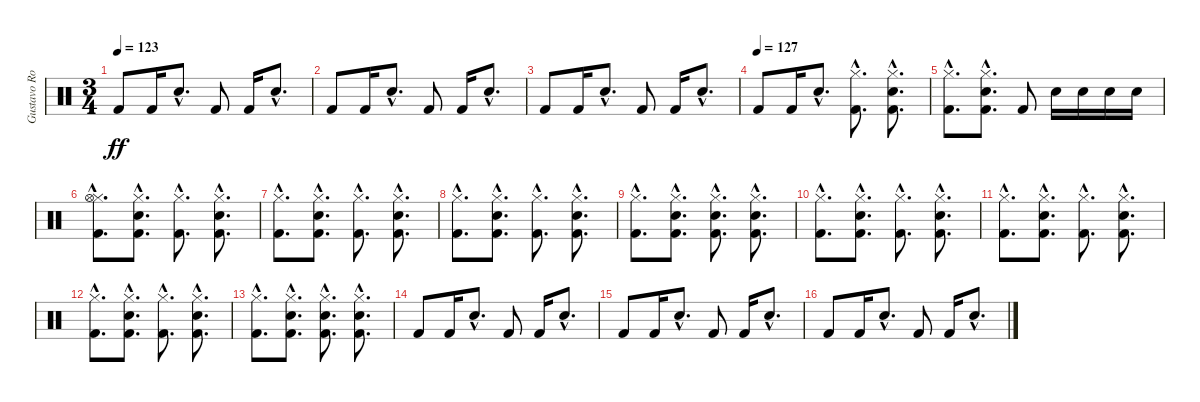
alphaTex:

\track ("Gustavo Rowek 2" "Gustavo Ro") {instrument percussion}
\staff {score}
\articulation defaults
\ts (3 4)
\tempo 123
\clef neutral
\ks c "Kick (hit) 2".8{dy ff} "Kick (hit) 2".16 "Snare (hit) 2"{hac}.8{d} "Kick (hit) 2".8 "Kick (hit) 2".16 "Snare (hit) 2"{hac}.8{d}
|
"Kick (hit) 2".8 "Kick (hit) 2".16 "Snare (hit) 2"{hac}.8{d} "Kick (hit) 2".8 "Kick (hit) 2".16 "Snare (hit) 2"{hac}.8{d} |
"Kick (hit) 2".8 "Kick (hit) 2".16 "Snare (hit) 2"{hac}.8{d} "Kick (hit) 2".8 "Kick (hit) 2".16 "Snare (hit) 2"{hac}.8{d} |
\tempo (127)
"Kick (hit) 2".8 "Kick (hit) 2".16 "Snare (hit) 2"{hac}.8{d} ("Kick (hit) 2"{hac} "Hi-Hat (closed)"{hac}).8{d} ("Kick (hit) 2"{hac} "Snare (hit) 2"{hac} "Hi-Hat (closed)"{hac}).8{d} |
("Kick (hit) 2"{hac} "Hi-Hat (closed)"{hac}).8{d} ("Kick (hit) 2"{hac} "Snare (hit) 2"{hac} "Hi-Hat (closed)"{hac}).8{d} "Kick (hit) 2".8 "Electric Snare (hit)".16 "Electric Snare (hit)".16 "Electric Snare (hit)".16 "Electric Snare (hit)".16 |
("Kick (hit) 2"{hac} "Hi-Hat (closed)"{hac} "Hi-Hat (open)"{hac}).8{d} ("Kick (hit) 2"{hac} "Snare (hit) 2"{hac} "Hi-Hat (closed)"{hac}).8{d} ("Kick (hit) 2"{hac} "Hi-Hat (closed)"{hac}).8{d} ("Kick (hit) 2"{hac} "Snare (hit) 2"{hac} "Hi-Hat (closed)"{hac}).8{d} |
("Kick (hit) 2"{hac} "Hi-Hat (closed)"{hac}).8{d} ("Kick (hit) 2"{hac} "Snare (hit) 2"{hac} "Hi-Hat (closed)"{hac}).8{d} ("Kick (hit) 2"{hac} "Hi-Hat (closed)"{hac}).8{d} ("Kick (hit) 2"{hac} "Snare (hit) 2"{hac} "Hi-Hat (closed)"{hac}).8{d} |
("Kick (hit) 2"{hac} "Hi-Hat (closed)"{hac}).8{d} ("Kick (hit) 2"{hac} "Snare (hit) 2"{hac} "Hi-Hat (closed)"{hac}).8{d} ("Kick (hit) 2"{hac} "Hi-Hat (closed)"{hac}).8{d} ("Kick (hit) 2"{hac} "Snare (hit) 2"{hac} "Hi-Hat (closed)"{hac}).8{d} |
("Kick (hit) 2"{hac} "Hi-Hat (closed)"{hac}).8{d} ("Kick (hit) 2"{hac} "Snare (hit) 2"{hac} "Hi-Hat (closed)"{hac}).8{d} ("Kick (hit) 2"{hac} "Snare (hit) 2"{hac} "Hi-Hat (closed)"{hac}).8{d} ("Kick (hit) 2"{hac} "Snare (hit) 2"{hac} "Hi-Hat (closed)"{hac}).8{d} |
("Kick (hit) 2"{hac} "Hi-Hat (closed)"{hac}).8{d} ("Kick (hit) 2"{hac} "Snare (hit) 2"{hac} "Hi-Hat (closed)"{hac}).8{d} ("Kick (hit) 2"{hac} "Hi-Hat (closed)"{hac}).8{d} ("Kick (hit) 2"{hac} "Snare (hit) 2"{hac} "Hi-Hat (closed)"{hac}).8{d} |
("Kick (hit) 2"{hac} "Hi-Hat (closed)"{hac}).8{d} ("Kick (hit) 2"{hac} "Snare (hit) 2"{hac} "Hi-Hat (closed)"{hac}).8{d} ("Kick (hit) 2"{hac} "Hi-Hat (closed)"{hac}).8{d} ("Kick (hit) 2"{hac} "Snare (hit) 2"{hac} "Hi-Hat (closed)"{hac}).8{d} |
("Kick (hit) 2"{hac} "Hi-Hat (closed)"{hac}).8{d} ("Kick (hit) 2"{hac} "Snare (hit) 2"{hac} "Hi-Hat (closed)"{hac}).8{d} ("Kick (hit) 2"{hac} "Hi-Hat (closed)"{hac}).8{d} ("Kick (hit) 2"{hac} "Snare (hit) 2"{hac} "Hi-Hat (closed)"{hac}).8{d} |
("Kick (hit) 2"{hac} "Hi-Hat (closed)"{hac}).8{d} ("Kick (hit) 2"{hac} "Snare (hit) 2"{hac} "Hi-Hat (closed)"{hac}).8{d} ("Kick (hit) 2"{hac} "Snare (hit) 2"{hac} "Hi-Hat (closed)"{hac}).8{d} ("Kick (hit) 2"{hac} "Snare (hit) 2"{hac} "Hi-Hat (closed)"{hac}).8{d} |
"Kick (hit) 2".8 "Kick (hit) 2".16 "Snare (hit) 2"{hac}.8{d} "Kick (hit) 2".8 "Kick (hit) 2".16 "Snare (hit) 2"{hac}.8{d} |
"Kick (hit) 2".8 "Kick (hit) 2".16 "Snare (hit) 2"{hac}.8{d} "Kick (hit) 2".8 "Kick (hit) 2".16 "Snare (hit) 2"{hac}.8{d} |
"Kick (hit) 2".8 "Kick (hit) 2".16 "Snare (hit) 2"{hac}.8{d} "Kick (hit) 2".8 "Kick (hit) 2".16 "Snare (hit) 2"{hac}.8{d}
